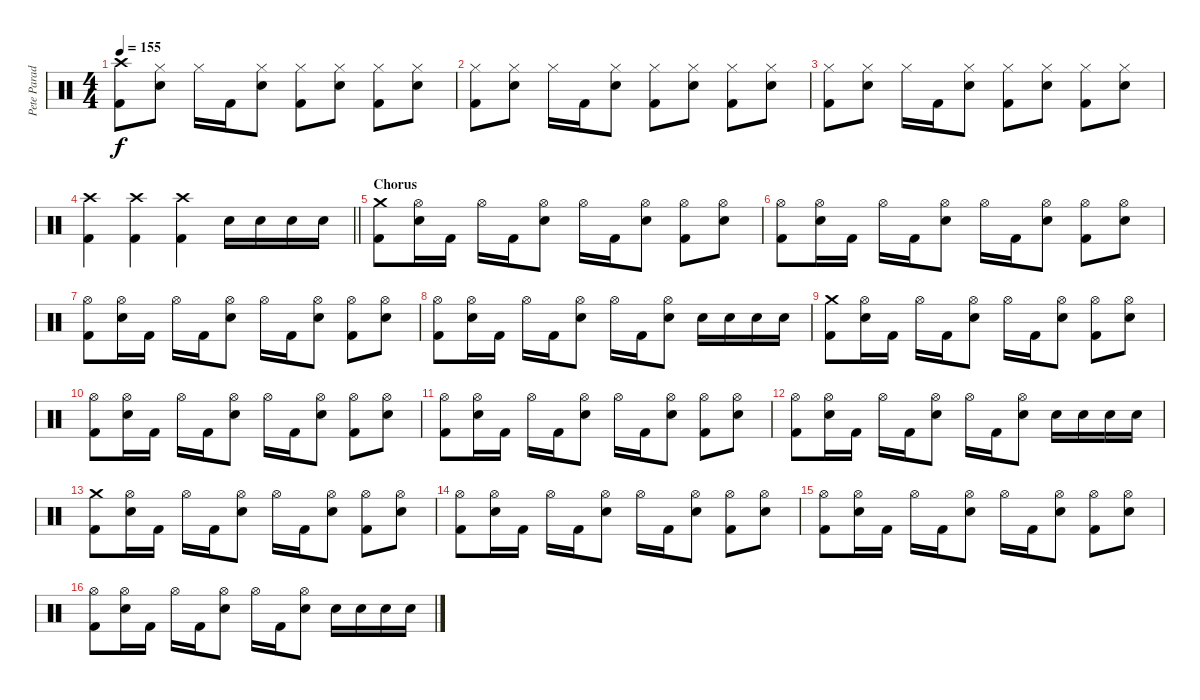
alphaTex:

\track ("Pete Parada - Drums" "Pete Parad") {instrument percussion}
\staff {score}
\articulation defaults
\ts (4 4)
\tempo 155
\clef neutral
\ks c
("Crash high (hit)" "Kick (hit) 2").8{dy f} ("Hi-Hat (closed)" "Electric Snare (hit)").8 "Hi-Hat (closed)".16 "Kick (hit) 2".16 ("Hi-Hat (closed)" "Electric Snare (hit)").8 ("Hi-Hat (closed)" "Kick (hit) 2").8 ("Hi-Hat (closed)" "Electric Snare (hit)").8 ("Hi-Hat (closed)" "Kick (hit) 2").8 ("Hi-Hat (closed)" "Electric Snare (hit)").8 |
("Hi-Hat (closed)" "Kick (hit) 2").8 ("Hi-Hat (closed)" "Electric Snare (hit)").8 "Hi-Hat (closed)".16 "Kick (hit) 2".16 ("Hi-Hat (closed)" "Electric Snare (hit)").8 ("Hi-Hat (closed)" "Kick (hit) 2").8 ("Hi-Hat (closed)" "Electric Snare (hit)").8 ("Hi-Hat (closed)" "Kick (hit) 2").8 ("Hi-Hat (closed)" "Electric Snare (hit)").8 |
("Hi-Hat (closed)" "Kick (hit) 2").8 ("Hi-Hat (closed)" "Electric Snare (hit)").8 "Hi-Hat (closed)".16 "Kick (hit) 2".16 ("Hi-Hat (closed)" "Electric Snare (hit)").8 ("Hi-Hat (closed)" "Kick (hit) 2").8 ("Hi-Hat (closed)" "Electric Snare (hit)").8 ("Hi-Hat (closed)" "Kick (hit) 2").8 ("Hi-Hat (closed)" "Electric Snare (hit)").8 |
\barLineRight lightlight
("Crash high (hit)" "Kick (hit) 2").4 ("Crash high (hit)" "Kick (hit) 2").4 ("Crash high (hit)" "Kick (hit) 2").4 "Electric Snare (hit)".16 "Electric Snare (hit)".16 "Electric Snare (hit)".16 "Electric Snare (hit)".16 |
\section ("" "Chorus")
("Crash medium (hit)" "Kick (hit) 2").8 ("Hi-Hat (open)" "Electric Snare (hit)").16 "Kick (hit) 2".16 "Hi-Hat (open)".16 "Kick (hit) 2".16 ("Hi-Hat (open)" "Electric Snare (hit)").8 "Hi-Hat (open)".16 "Kick (hit) 2".16 ("Hi-Hat (open)" "Electric Snare (hit)").8 ("Hi-Hat (open)" "Kick (hit) 2").8 ("Hi-Hat (open)" "Electric Snare (hit)").8 |
("Hi-Hat (open)" "Kick (hit) 2").8 ("Hi-Hat (open)" "Electric Snare (hit)").16 "Kick (hit) 2".16 "Hi-Hat (open)".16 "Kick (hit) 2".16 ("Hi-Hat (open)" "Electric Snare (hit)").8 "Hi-Hat (open)".16 "Kick (hit) 2".16 ("Hi-Hat (open)" "Electric Snare (hit)").8 ("Hi-Hat (open)" "Kick (hit) 2").8 ("Hi-Hat (open)" "Electric Snare (hit)").8 |
("Hi-Hat (open)" "Kick (hit) 2").8 ("Hi-Hat (open)" "Electric Snare (hit)").16 "Kick (hit) 2".16 "Hi-Hat (open)".16 "Kick (hit) 2".16 ("Hi-Hat (open)" "Electric Snare (hit)").8 "Hi-Hat (open)".16 "Kick (hit) 2".16 ("Hi-Hat (open)" "Electric Snare (hit)").8 ("Hi-Hat (open)" "Kick (hit) 2").8 ("Hi-Hat (open)" "Electric Snare (hit)").8 |
("Hi-Hat (open)" "Kick (hit) 2").8 ("Hi-Hat (open)" "Electric Snare (hit)").16 "Kick (hit) 2".16 "Hi-Hat (open)".16 "Kick (hit) 2".16 ("Hi-Hat (open)" "Electric Snare (hit)").8 "Hi-Hat (open)".16 "Kick (hit) 2".16 ("Hi-Hat (open)" "Electric Snare (hit)").8 "Electric Snare (hit)".16 "Electric Snare (hit)".16 "Electric Snare (hit)".16 "Electric Snare (hit)".16 |
("Crash medium (hit)" "Kick (hit) 2").8 ("Hi-Hat (open)" "Electric Snare (hit)").16 "Kick (hit) 2".16 "Hi-Hat (open)".16 "Kick (hit) 2".16 ("Hi-Hat (open)" "Electric Snare (hit)").8 "Hi-Hat (open)".16 "Kick (hit) 2".16 ("Hi-Hat (open)" "Electric Snare (hit)").8 ("Hi-Hat (open)" "Kick (hit) 2").8 ("Hi-Hat (open)" "Electric Snare (hit)").8 |
("Hi-Hat (open)" "Kick (hit) 2").8 ("Hi-Hat (open)" "Electric Snare (hit)").16 "Kick (hit) 2".16 "Hi-Hat (open)".16 "Kick (hit) 2".16 ("Hi-Hat (open)" "Electric Snare (hit)").8 "Hi-Hat (open)".16 "Kick (hit) 2".16 ("Hi-Hat (open)" "Electric Snare (hit)").8 ("Hi-Hat (open)" "Kick (hit) 2").8 ("Hi-Hat (open)" "Electric Snare (hit)").8 |
("Hi-Hat (open)" "Kick (hit) 2").8 ("Hi-Hat (open)" "Electric Snare (hit)").16 "Kick (hit) 2".16 "Hi-Hat (open)".16 "Kick (hit) 2".16 ("Hi-Hat (open)" "Electric Snare (hit)").8 "Hi-Hat (open)".16 "Kick (hit) 2".16 ("Hi-Hat (open)" "Electric Snare (hit)").8 ("Hi-Hat (open)" "Kick (hit) 2").8 ("Hi-Hat (open)" "Electric Snare (hit)").8 |
("Hi-Hat (open)" "Kick (hit) 2").8 ("Hi-Hat (open)" "Electric Snare (hit)").16 "Kick (hit) 2".16 "Hi-Hat (open)".16 "Kick (hit) 2".16 ("Hi-Hat (open)" "Electric Snare (hit)").8 "Hi-Hat (open)".16 "Kick (hit) 2".16 ("Hi-Hat (open)" "Electric Snare (hit)").8 "Electric Snare (hit)".16 "Electric Snare (hit)".16 "Electric Snare (hit)".16 "Electric Snare (hit)".16 |
("Crash medium (hit)" "Kick (hit) 2").8 ("Hi-Hat (open)" "Electric Snare (hit)").16 "Kick (hit) 2".16 "Hi-Hat (open)".16 "Kick (hit) 2".16 ("Hi-Hat (open)" "Electric Snare (hit)").8 "Hi-Hat (open)".16 "Kick (hit) 2".16 ("Hi-Hat (open)" "Electric Snare (hit)").8 ("Hi-Hat (open)" "Kick (hit) 2").8 ("Hi-Hat (open)" "Electric Snare (hit)").8 |
("Hi-Hat (open)" "Kick (hit) 2").8 ("Hi-Hat (open)" "Electric Snare (hit)").16 "Kick (hit) 2".16 "Hi-Hat (open)".16 "Kick (hit) 2".16 ("Hi-Hat (open)" "Electric Snare (hit)").8 "Hi-Hat (open)".16 "Kick (hit) 2".16 ("Hi-Hat (open)" "Electric Snare (hit)").8 ("Hi-Hat (open)" "Kick (hit) 2").8 ("Hi-Hat (open)" "Electric Snare (hit)").8 |
("Hi-Hat (open)" "Kick (hit) 2").8 ("Hi-Hat (open)" "Electric Snare (hit)").16 "Kick (hit) 2".16 "Hi-Hat (open)".16 "Kick (hit) 2".16 ("Hi-Hat (open)" "Electric Snare (hit)").8 "Hi-Hat (open)".16 "Kick (hit) 2".16 ("Hi-Hat (open)" "Electric Snare (hit)").8 ("Hi-Hat (open)" "Kick (hit) 2").8 ("Hi-Hat (open)" "Electric Snare (hit)").8 |
("Hi-Hat (open)" "Kick (hit) 2").8 ("Hi-Hat (open)" "Electric Snare (hit)").16 "Kick (hit) 2".16 "Hi-Hat (open)".16 "Kick (hit) 2".16 ("Hi-Hat (open)" "Electric Snare (hit)").8 "Hi-Hat (open)".16 "Kick (hit) 2".16 ("Hi-Hat (open)" "Electric Snare (hit)").8 "Electric Snare (hit)".16 "Electric Snare (hit)".16 "Electric Snare (hit)".16 "Electric Snare (hit)".16
